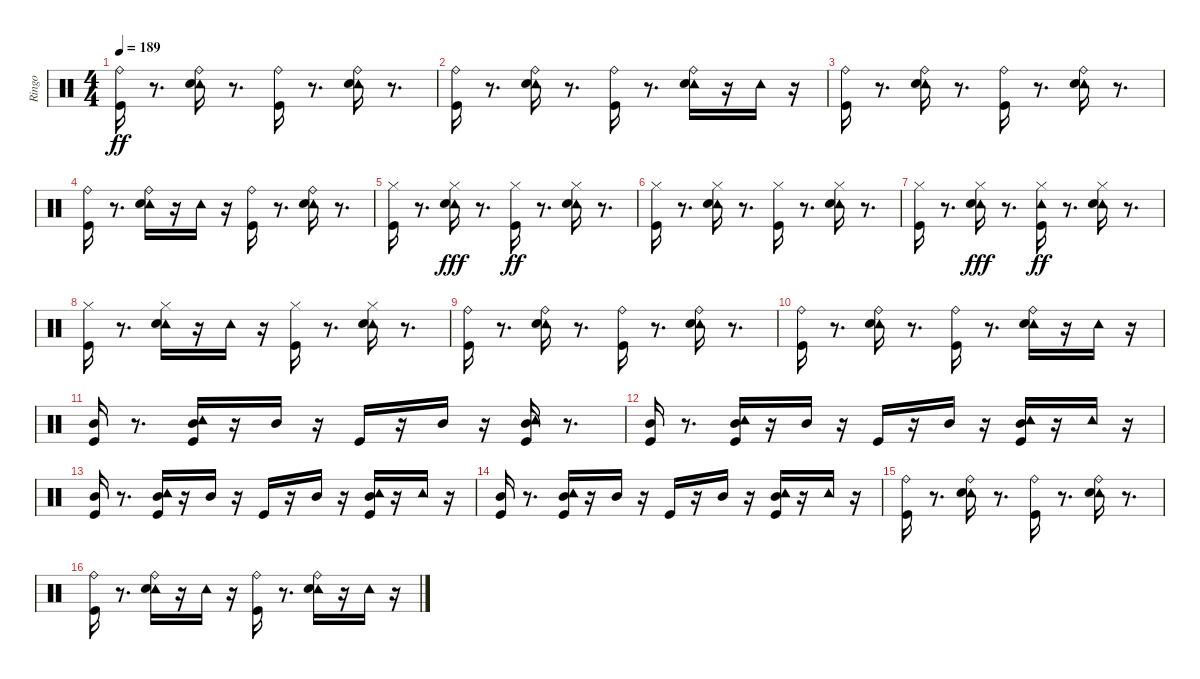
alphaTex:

\track ("Ringo" "Ringo") {instrument percussion}
\staff {score}
\articulation defaults
\ts (4 4)
\tempo 189
\clef neutral
\ks c
("Ride (bell)" "Kick (hit)").16{dy ff} r.8{d} ("Tambourine (hit)" "Ride (bell)" "Snare (hit) 2").16 r.8{d} ("Ride (bell)" "Kick (hit)").16 r.8{d} ("Tambourine (hit)" "Ride (bell)" "Snare (hit) 2").16 r.8{d} |
("Ride (bell)" "Kick (hit)").16 r.8{d} ("Tambourine (hit)" "Ride (bell)" "Snare (hit) 2").16 r.8{d} ("Ride (bell)" "Kick (hit)").16 r.8{d} ("Ride (bell)" "Tambourine (hit)" "Snare (hit) 2").16 r.16 "Tambourine (hit)".16 r.16 |
("Ride (bell)" "Kick (hit)").16 r.8{d} ("Tambourine (hit)" "Ride (bell)" "Snare (hit) 2").16 r.8{d} ("Ride (bell)" "Kick (hit)").16 r.8{d} ("Tambourine (hit)" "Ride (bell)" "Snare (hit) 2").16 r.8{d} |
("Ride (bell)" "Kick (hit)").16 r.8{d} ("Tambourine (hit)" "Ride (bell)" "Snare (hit) 2").16 r.16 "Tambourine (hit)".16 r.16 ("Ride (bell)" "Kick (hit)").16 r.8{d} ("Ride (bell)" "Tambourine (hit)" "Snare (hit) 2").16 r.8{d} |
("Hi-Hat (closed)" "Kick (hit)").16 r.8{d} ("Tambourine (hit)" "Hi-Hat (closed)" "Snare (hit) 2").16{dy fff} r.8{d} ("Hi-Hat (closed)" "Kick (hit)").16{dy ff} r.8{d} ("Hi-Hat (closed)" "Tambourine (hit)" "Snare (hit) 2").16 r.8{d} |
("Hi-Hat (closed)" "Kick (hit)").16 r.8{d} ("Hi-Hat (closed)" "Tambourine (hit)" "Snare (hit) 2").16 r.8{d} ("Hi-Hat (closed)" "Kick (hit)").16 r.8{d} ("Hi-Hat (closed)" "Tambourine (hit)" "Snare (hit) 2").16 r.8{d} |
("Hi-Hat (closed)" "Kick (hit)").16 r.8{d} ("Tambourine (hit)" "Hi-Hat (closed)" "Snare (hit) 2").16{dy fff} r.8{d} ("Tambourine (hit)" "Hi-Hat (closed)" "Kick (hit)").16{dy ff} r.8{d} ("Hi-Hat (closed)" "Tambourine (hit)" "Snare (hit) 2").16 r.8{d} |
("Hi-Hat (closed)" "Kick (hit)").16 r.8{d} ("Hi-Hat (closed)" "Tambourine (hit)" "Snare (hit) 2").16 r.16 "Tambourine (hit)".16 r.16 ("Hi-Hat (closed)" "Kick (hit)").16 r.8{d} ("Hi-Hat (closed)" "Tambourine (hit)" "Snare (hit) 2").16 r.8{d} |
("Ride (bell)" "Kick (hit)").16 r.8{d} ("Ride (bell)" "Tambourine (hit)" "Snare (hit) 2").16 r.8{d} ("Ride (bell)" "Kick (hit)").16 r.8{d} ("Ride (bell)" "Tambourine (hit)" "Snare (hit) 2").16 r.8{d} |
("Ride (bell)" "Kick (hit)").16 r.8{d} ("Ride (bell)" "Tambourine (hit)" "Snare (hit) 2").16 r.8{d} ("Ride (bell)" "Kick (hit)").16 r.8{d} ("Tambourine (hit)" "Ride (bell)" "Snare (hit) 2").16 r.16 "Tambourine (hit)".16 r.16 |
("Mid Tom (hit)" "Kick (hit)").16 r.8{d} ("Mid Tom (hit)" "Tambourine (hit)" "Kick (hit)").16 r.16 "Mid Tom (hit)".16 r.16 "Kick (hit)".16 r.16 "Mid Tom (hit)".16 r.16 ("Mid Tom (hit)" "Tambourine (hit)" "Kick (hit)").16 r.8{d} |
("Mid Tom (hit)" "Kick (hit)").16 r.8{d} ("Tambourine (hit)" "Mid Tom (hit)" "Kick (hit)").16 r.16 "Mid Tom (hit)".16 r.16 "Kick (hit)".16 r.16 "Mid Tom (hit)".16 r.16 ("Mid Tom (hit)" "Tambourine (hit)" "Kick (hit)").16 r.16 "Tambourine (hit)".16 r.16 |
("Mid Tom (hit)" "Kick (hit)").16 r.8{d} ("Tambourine (hit)" "Mid Tom (hit)" "Kick (hit)").16 r.16 "Mid Tom (hit)".16 r.16 "Kick (hit)".16 r.16 "Mid Tom (hit)".16 r.16 ("Mid Tom (hit)" "Tambourine (hit)" "Kick (hit)").16 r.16 "Tambourine (hit)".16 r.16 |
("Mid Tom (hit)" "Kick (hit)").16 r.8{d} ("Mid Tom (hit)" "Tambourine (hit)" "Kick (hit)").16 r.16 "Mid Tom (hit)".16 r.16 "Kick (hit)".16 r.16 "Mid Tom (hit)".16 r.16 ("Mid Tom (hit)" "Tambourine (hit)" "Kick (hit)").16 r.16 "Tambourine (hit)".16 r.16 |
("Ride (bell)" "Kick (hit)").16 r.8{d} ("Ride (bell)" "Tambourine (hit)" "Snare (hit) 2").16 r.8{d} ("Ride (bell)" "Kick (hit)").16 r.8{d} ("Ride (bell)" "Tambourine (hit)" "Snare (hit) 2").16 r.8{d} |
("Ride (bell)" "Kick (hit)").16 r.8{d} ("Ride (bell)" "Tambourine (hit)" "Snare (hit) 2").16 r.16 "Tambourine (hit)".16 r.16 ("Ride (bell)" "Kick (hit)").16 r.8{d} ("Tambourine (hit)" "Ride (bell)" "Snare (hit) 2").16 r.16 "Tambourine (hit)".16 r.16
